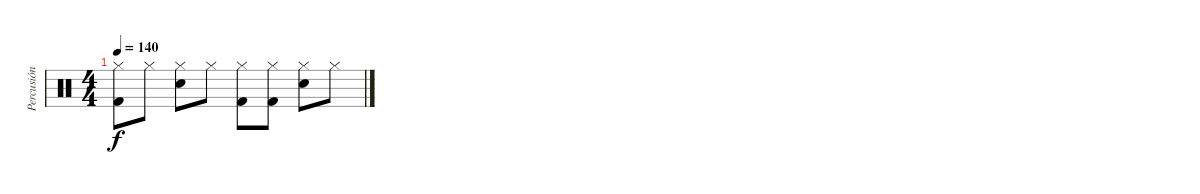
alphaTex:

\track ("Percusión" "Percusión") {instrument percussion}
\staff {score}
\articulation defaults
\ts (4 4)
\tempo 140
\clef neutral
\ks c
("Hi-Hat (closed)" "Kick (hit) 2").8{dy f} "Hi-Hat (closed)".8 ("Hi-Hat (closed)" "Snare (hit) 2").8 "Hi-Hat (closed)".8 ("Hi-Hat (closed)" "Kick (hit) 2").8 ("Hi-Hat (closed)" "Kick (hit) 2").8 ("Hi-Hat (closed)" "Snare (hit) 2").8 "Hi-Hat (closed)".8
